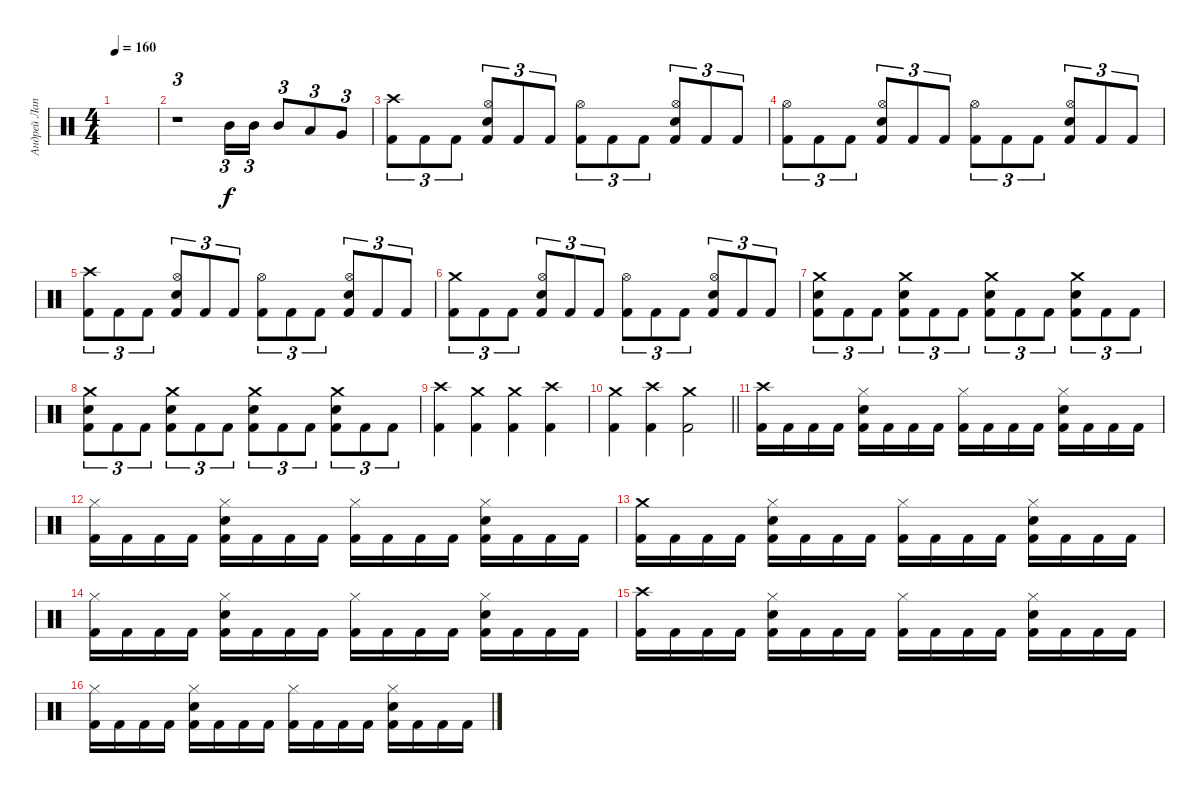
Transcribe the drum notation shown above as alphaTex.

\track ("Андрей Лаптев" "Андрей Лап") {instrument percussion}
\staff {score}
\articulation defaults
\ts (4 4)
\tempo 160
\clef neutral
\ks c
|
r.1{tu (3 2)} "Mid Tom (hit)".16{tu (3 2)} "Mid Tom (hit)".16{tu (3 2)} "Mid Tom (hit)".8{tu (3 2)} "Low Tom (hit)".8{tu (3 2) dy f} "Very Low Tom (hit)".8{tu (3 2)} |
("Crash high (hit)" "Kick (hit) 2").8{tu (3 2)} "Kick (hit) 2".8{tu (3 2)} "Kick (hit) 2".8{tu (3 2)} ("Hi-Hat (open)" "Electric Snare (hit)" "Kick (hit) 2").8{tu (3 2)} "Kick (hit) 2".8{tu (3 2)} "Kick (hit) 2".8{tu (3 2)} ("Hi-Hat (open)" "Kick (hit) 2").8{tu (3 2)} "Kick (hit) 2".8{tu (3 2)} "Kick (hit) 2".8{tu (3 2)} ("Hi-Hat (open)" "Electric Snare (hit)" "Kick (hit) 2").8{tu (3 2)} "Kick (hit) 2".8{tu (3 2)} "Kick (hit) 2".8{tu (3 2)} |
("Hi-Hat (open)" "Kick (hit) 2").8{tu (3 2)} "Kick (hit) 2".8{tu (3 2)} "Kick (hit) 2".8{tu (3 2)} ("Hi-Hat (open)" "Electric Snare (hit)" "Kick (hit) 2").8{tu (3 2)} "Kick (hit) 2".8{tu (3 2)} "Kick (hit) 2".8{tu (3 2)} ("Hi-Hat (open)" "Kick (hit) 2").8{tu (3 2)} "Kick (hit) 2".8{tu (3 2)} "Kick (hit) 2".8{tu (3 2)} ("Hi-Hat (open)" "Electric Snare (hit)" "Kick (hit) 2").8{tu (3 2)} "Kick (hit) 2".8{tu (3 2)} "Kick (hit) 2".8{tu (3 2)} |
("Crash high (hit)" "Kick (hit) 2").8{tu (3 2)} "Kick (hit) 2".8{tu (3 2)} "Kick (hit) 2".8{tu (3 2)} ("Hi-Hat (open)" "Electric Snare (hit)" "Kick (hit) 2").8{tu (3 2)} "Kick (hit) 2".8{tu (3 2)} "Kick (hit) 2".8{tu (3 2)} ("Hi-Hat (open)" "Kick (hit) 2").8{tu (3 2)} "Kick (hit) 2".8{tu (3 2)} "Kick (hit) 2".8{tu (3 2)} ("Hi-Hat (open)" "Electric Snare (hit)" "Kick (hit) 2").8{tu (3 2)} "Kick (hit) 2".8{tu (3 2)} "Kick (hit) 2".8{tu (3 2)} |
("Crash medium (hit)" "Kick (hit) 2").8{tu (3 2)} "Kick (hit) 2".8{tu (3 2)} "Kick (hit) 2".8{tu (3 2)} ("Hi-Hat (open)" "Electric Snare (hit)" "Kick (hit) 2").8{tu (3 2)} "Kick (hit) 2".8{tu (3 2)} "Kick (hit) 2".8{tu (3 2)} ("Hi-Hat (open)" "Kick (hit) 2").8{tu (3 2)} "Kick (hit) 2".8{tu (3 2)} "Kick (hit) 2".8{tu (3 2)} ("Hi-Hat (open)" "Electric Snare (hit)" "Kick (hit) 2").8{tu (3 2)} "Kick (hit) 2".8{tu (3 2)} "Kick (hit) 2".8{tu (3 2)} |
("Crash medium (hit)" "Electric Snare (hit)" "Kick (hit) 2").8{tu (3 2)} "Kick (hit) 2".8{tu (3 2)} "Kick (hit) 2".8{tu (3 2)} ("Crash medium (hit)" "Electric Snare (hit)" "Kick (hit) 2").8{tu (3 2)} "Kick (hit) 2".8{tu (3 2)} "Kick (hit) 2".8{tu (3 2)} ("Crash medium (hit)" "Electric Snare (hit)" "Kick (hit) 2").8{tu (3 2)} "Kick (hit) 2".8{tu (3 2)} "Kick (hit) 2".8{tu (3 2)} ("Crash medium (hit)" "Electric Snare (hit)" "Kick (hit) 2").8{tu (3 2)} "Kick (hit) 2".8{tu (3 2)} "Kick (hit) 2".8{tu (3 2)} |
("Crash medium (hit)" "Electric Snare (hit)" "Kick (hit) 2").8{tu (3 2)} "Kick (hit) 2".8{tu (3 2)} "Kick (hit) 2".8{tu (3 2)} ("Crash medium (hit)" "Electric Snare (hit)" "Kick (hit) 2").8{tu (3 2)} "Kick (hit) 2".8{tu (3 2)} "Kick (hit) 2".8{tu (3 2)} ("Crash medium (hit)" "Electric Snare (hit)" "Kick (hit) 2").8{tu (3 2)} "Kick (hit) 2".8{tu (3 2)} "Kick (hit) 2".8{tu (3 2)} ("Crash medium (hit)" "Electric Snare (hit)" "Kick (hit) 2").8{tu (3 2)} "Kick (hit) 2".8{tu (3 2)} "Kick (hit) 2".8{tu (3 2)} |
("Crash high (hit)" "Kick (hit) 2").4 ("Crash medium (hit)" "Kick (hit) 2").4 ("Crash medium (hit)" "Kick (hit) 2").4 ("Crash high (hit)" "Kick (hit) 2").4 |
\barLineRight lightlight
("Crash medium (hit)" "Kick (hit) 2").4 ("Crash high (hit)" "Kick (hit) 2").4 ("Crash medium (hit)" "Kick (hit) 2").2 |
\section ("" "")
("Crash high (hit)" "Kick (hit) 2").16 "Kick (hit) 2".16 "Kick (hit) 2".16 "Kick (hit) 2".16 ("Hi-Hat (closed)" "Electric Snare (hit)" "Kick (hit) 2").16 "Kick (hit) 2".16 "Kick (hit) 2".16 "Kick (hit) 2".16 ("Hi-Hat (closed)" "Kick (hit) 2").16 "Kick (hit) 2".16 "Kick (hit) 2".16 "Kick (hit) 2".16 ("Hi-Hat (closed)" "Electric Snare (hit)" "Kick (hit) 2").16 "Kick (hit) 2".16 "Kick (hit) 2".16 "Kick (hit) 2".16 |
("Hi-Hat (closed)" "Kick (hit) 2").16 "Kick (hit) 2".16 "Kick (hit) 2".16 "Kick (hit) 2".16 ("Hi-Hat (closed)" "Electric Snare (hit)" "Kick (hit) 2").16 "Kick (hit) 2".16 "Kick (hit) 2".16 "Kick (hit) 2".16 ("Hi-Hat (closed)" "Kick (hit) 2").16 "Kick (hit) 2".16 "Kick (hit) 2".16 "Kick (hit) 2".16 ("Hi-Hat (closed)" "Electric Snare (hit)" "Kick (hit) 2").16 "Kick (hit) 2".16 "Kick (hit) 2".16 "Kick (hit) 2".16 |
("Crash medium (hit)" "Kick (hit) 2").16 "Kick (hit) 2".16 "Kick (hit) 2".16 "Kick (hit) 2".16 ("Hi-Hat (closed)" "Electric Snare (hit)" "Kick (hit) 2").16 "Kick (hit) 2".16 "Kick (hit) 2".16 "Kick (hit) 2".16 ("Hi-Hat (closed)" "Kick (hit) 2").16 "Kick (hit) 2".16 "Kick (hit) 2".16 "Kick (hit) 2".16 ("Hi-Hat (closed)" "Electric Snare (hit)" "Kick (hit) 2").16 "Kick (hit) 2".16 "Kick (hit) 2".16 "Kick (hit) 2".16 |
("Hi-Hat (closed)" "Kick (hit) 2").16 "Kick (hit) 2".16 "Kick (hit) 2".16 "Kick (hit) 2".16 ("Hi-Hat (closed)" "Electric Snare (hit)" "Kick (hit) 2").16 "Kick (hit) 2".16 "Kick (hit) 2".16 "Kick (hit) 2".16 ("Hi-Hat (closed)" "Kick (hit) 2").16 "Kick (hit) 2".16 "Kick (hit) 2".16 "Kick (hit) 2".16 ("Hi-Hat (closed)" "Electric Snare (hit)" "Kick (hit) 2").16 "Kick (hit) 2".16 "Kick (hit) 2".16 "Kick (hit) 2".16 |
("Crash high (hit)" "Kick (hit) 2").16 "Kick (hit) 2".16 "Kick (hit) 2".16 "Kick (hit) 2".16 ("Hi-Hat (closed)" "Electric Snare (hit)" "Kick (hit) 2").16 "Kick (hit) 2".16 "Kick (hit) 2".16 "Kick (hit) 2".16 ("Hi-Hat (closed)" "Kick (hit) 2").16 "Kick (hit) 2".16 "Kick (hit) 2".16 "Kick (hit) 2".16 ("Hi-Hat (closed)" "Electric Snare (hit)" "Kick (hit) 2").16 "Kick (hit) 2".16 "Kick (hit) 2".16 "Kick (hit) 2".16 |
("Hi-Hat (closed)" "Kick (hit) 2").16 "Kick (hit) 2".16 "Kick (hit) 2".16 "Kick (hit) 2".16 ("Hi-Hat (closed)" "Electric Snare (hit)" "Kick (hit) 2").16 "Kick (hit) 2".16 "Kick (hit) 2".16 "Kick (hit) 2".16 ("Hi-Hat (closed)" "Kick (hit) 2").16 "Kick (hit) 2".16 "Kick (hit) 2".16 "Kick (hit) 2".16 ("Hi-Hat (closed)" "Electric Snare (hit)" "Kick (hit) 2").16 "Kick (hit) 2".16 "Kick (hit) 2".16 "Kick (hit) 2".16
